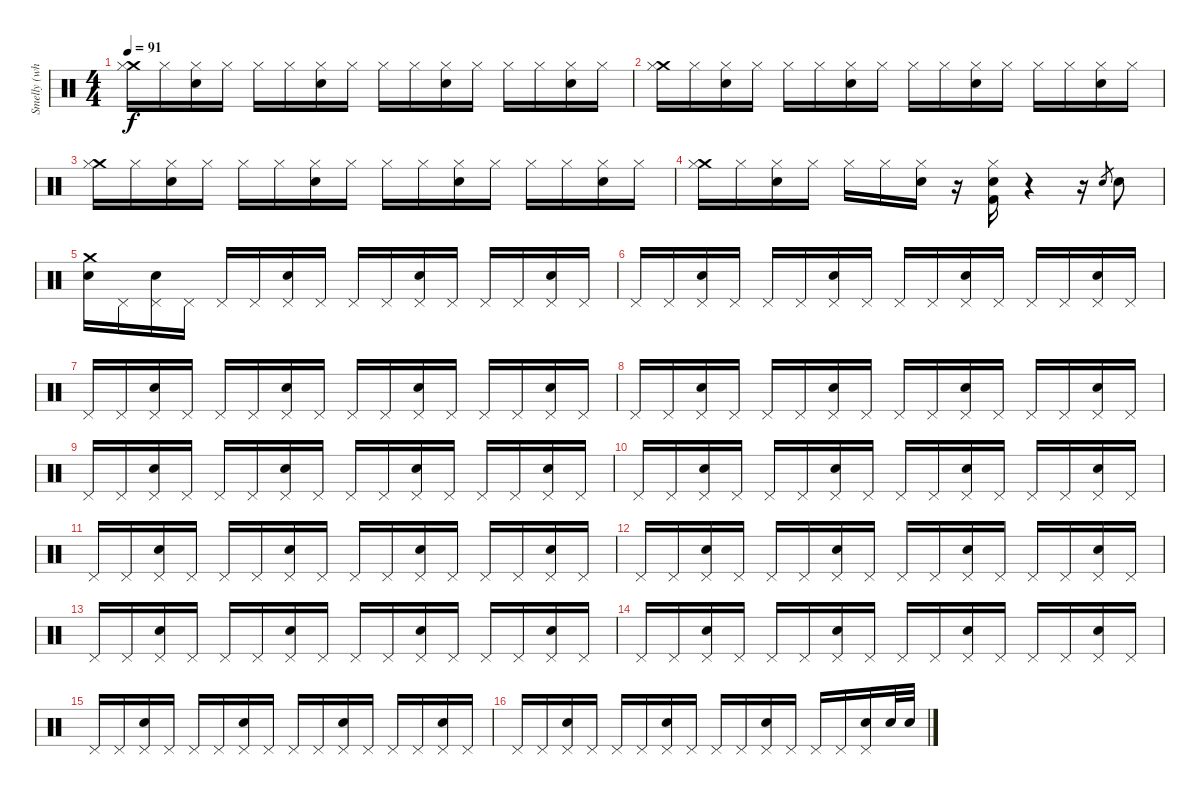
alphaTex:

\track ("Smelly (who ever change his name)" "Smelly (wh") {instrument percussion}
\staff {score}
\articulation defaults
\ts (4 4)
\tempo 91
\clef neutral
\ks c
("Crash medium (hit)" "Hi-Hat (closed)").16{dy f} "Hi-Hat (closed)".16 ("Hi-Hat (closed)" "Electric Snare (hit)").16 "Hi-Hat (closed)".16 "Hi-Hat (closed)".16 "Hi-Hat (closed)".16 ("Hi-Hat (closed)" "Electric Snare (hit)").16 "Hi-Hat (closed)".16 "Hi-Hat (closed)".16 "Hi-Hat (closed)".16 ("Hi-Hat (closed)" "Electric Snare (hit)").16 "Hi-Hat (closed)".16 "Hi-Hat (closed)".16 "Hi-Hat (closed)".16 ("Hi-Hat (closed)" "Electric Snare (hit)").16 "Hi-Hat (closed)".16 |
("Crash medium (hit)" "Hi-Hat (closed)").16 "Hi-Hat (closed)".16 ("Hi-Hat (closed)" "Electric Snare (hit)").16 "Hi-Hat (closed)".16 "Hi-Hat (closed)".16 "Hi-Hat (closed)".16 ("Hi-Hat (closed)" "Electric Snare (hit)").16 "Hi-Hat (closed)".16 "Hi-Hat (closed)".16 "Hi-Hat (closed)".16 ("Hi-Hat (closed)" "Electric Snare (hit)").16 "Hi-Hat (closed)".16 "Hi-Hat (closed)".16 "Hi-Hat (closed)".16 ("Hi-Hat (closed)" "Electric Snare (hit)").16 "Hi-Hat (closed)".16 |
("Crash medium (hit)" "Hi-Hat (closed)").16 "Hi-Hat (closed)".16 ("Hi-Hat (closed)" "Electric Snare (hit)").16 "Hi-Hat (closed)".16 "Hi-Hat (closed)".16 "Hi-Hat (closed)".16 ("Hi-Hat (closed)" "Electric Snare (hit)").16 "Hi-Hat (closed)".16 "Hi-Hat (closed)".16 "Hi-Hat (closed)".16 ("Hi-Hat (closed)" "Electric Snare (hit)").16 "Hi-Hat (closed)".16 "Hi-Hat (closed)".16 "Hi-Hat (closed)".16 ("Hi-Hat (closed)" "Electric Snare (hit)").16 "Hi-Hat (closed)".16 |
("Crash medium (hit)" "Hi-Hat (closed)").16 "Hi-Hat (closed)".16 ("Hi-Hat (closed)" "Electric Snare (hit)").16 "Hi-Hat (closed)".16 "Hi-Hat (closed)".16 "Hi-Hat (closed)".16 ("Hi-Hat (closed)" "Electric Snare (hit)").16 r.16 ("Hi-Hat (closed)" "Electric Snare (hit)" "Kick (hit) 2").16 r.4 r.16 "Electric Snare (hit)".8{gr} "Electric Snare (hit)".8 |
("Crash medium (hit)" "Electric Snare (hit)").16 "Pedal Hi-Hat (hit)".16 ("Pedal Hi-Hat (hit)" "Electric Snare (hit)").16 "Pedal Hi-Hat (hit)".16 "Pedal Hi-Hat (hit)".16 "Pedal Hi-Hat (hit)".16 ("Pedal Hi-Hat (hit)" "Electric Snare (hit)").16 "Pedal Hi-Hat (hit)".16 "Pedal Hi-Hat (hit)".16 "Pedal Hi-Hat (hit)".16 ("Pedal Hi-Hat (hit)" "Electric Snare (hit)").16 "Pedal Hi-Hat (hit)".16 "Pedal Hi-Hat (hit)".16 "Pedal Hi-Hat (hit)".16 ("Pedal Hi-Hat (hit)" "Electric Snare (hit)").16 "Pedal Hi-Hat (hit)".16 |
"Pedal Hi-Hat (hit)".16 "Pedal Hi-Hat (hit)".16 ("Pedal Hi-Hat (hit)" "Electric Snare (hit)").16 "Pedal Hi-Hat (hit)".16 "Pedal Hi-Hat (hit)".16 "Pedal Hi-Hat (hit)".16 ("Pedal Hi-Hat (hit)" "Electric Snare (hit)").16 "Pedal Hi-Hat (hit)".16 "Pedal Hi-Hat (hit)".16 "Pedal Hi-Hat (hit)".16 ("Pedal Hi-Hat (hit)" "Electric Snare (hit)").16 "Pedal Hi-Hat (hit)".16 "Pedal Hi-Hat (hit)".16 "Pedal Hi-Hat (hit)".16 ("Pedal Hi-Hat (hit)" "Electric Snare (hit)").16 "Pedal Hi-Hat (hit)".16 |
"Pedal Hi-Hat (hit)".16 "Pedal Hi-Hat (hit)".16 ("Pedal Hi-Hat (hit)" "Electric Snare (hit)").16 "Pedal Hi-Hat (hit)".16 "Pedal Hi-Hat (hit)".16 "Pedal Hi-Hat (hit)".16 ("Pedal Hi-Hat (hit)" "Electric Snare (hit)").16 "Pedal Hi-Hat (hit)".16 "Pedal Hi-Hat (hit)".16 "Pedal Hi-Hat (hit)".16 ("Pedal Hi-Hat (hit)" "Electric Snare (hit)").16 "Pedal Hi-Hat (hit)".16 "Pedal Hi-Hat (hit)".16 "Pedal Hi-Hat (hit)".16 ("Pedal Hi-Hat (hit)" "Electric Snare (hit)").16 "Pedal Hi-Hat (hit)".16 |
"Pedal Hi-Hat (hit)".16 "Pedal Hi-Hat (hit)".16 ("Pedal Hi-Hat (hit)" "Electric Snare (hit)").16 "Pedal Hi-Hat (hit)".16 "Pedal Hi-Hat (hit)".16 "Pedal Hi-Hat (hit)".16 ("Pedal Hi-Hat (hit)" "Electric Snare (hit)").16 "Pedal Hi-Hat (hit)".16 "Pedal Hi-Hat (hit)".16 "Pedal Hi-Hat (hit)".16 ("Pedal Hi-Hat (hit)" "Electric Snare (hit)").16 "Pedal Hi-Hat (hit)".16 "Pedal Hi-Hat (hit)".16 "Pedal Hi-Hat (hit)".16 ("Pedal Hi-Hat (hit)" "Electric Snare (hit)").16 "Pedal Hi-Hat (hit)".16 |
"Pedal Hi-Hat (hit)".16 "Pedal Hi-Hat (hit)".16 ("Pedal Hi-Hat (hit)" "Electric Snare (hit)").16 "Pedal Hi-Hat (hit)".16 "Pedal Hi-Hat (hit)".16 "Pedal Hi-Hat (hit)".16 ("Pedal Hi-Hat (hit)" "Electric Snare (hit)").16 "Pedal Hi-Hat (hit)".16 "Pedal Hi-Hat (hit)".16 "Pedal Hi-Hat (hit)".16 ("Pedal Hi-Hat (hit)" "Electric Snare (hit)").16 "Pedal Hi-Hat (hit)".16 "Pedal Hi-Hat (hit)".16 "Pedal Hi-Hat (hit)".16 ("Pedal Hi-Hat (hit)" "Electric Snare (hit)").16 "Pedal Hi-Hat (hit)".16 |
"Pedal Hi-Hat (hit)".16 "Pedal Hi-Hat (hit)".16 ("Pedal Hi-Hat (hit)" "Electric Snare (hit)").16 "Pedal Hi-Hat (hit)".16 "Pedal Hi-Hat (hit)".16 "Pedal Hi-Hat (hit)".16 ("Pedal Hi-Hat (hit)" "Electric Snare (hit)").16 "Pedal Hi-Hat (hit)".16 "Pedal Hi-Hat (hit)".16 "Pedal Hi-Hat (hit)".16 ("Pedal Hi-Hat (hit)" "Electric Snare (hit)").16 "Pedal Hi-Hat (hit)".16 "Pedal Hi-Hat (hit)".16 "Pedal Hi-Hat (hit)".16 ("Pedal Hi-Hat (hit)" "Electric Snare (hit)").16 "Pedal Hi-Hat (hit)".16 |
"Pedal Hi-Hat (hit)".16 "Pedal Hi-Hat (hit)".16 ("Pedal Hi-Hat (hit)" "Electric Snare (hit)").16 "Pedal Hi-Hat (hit)".16 "Pedal Hi-Hat (hit)".16 "Pedal Hi-Hat (hit)".16 ("Pedal Hi-Hat (hit)" "Electric Snare (hit)").16 "Pedal Hi-Hat (hit)".16 "Pedal Hi-Hat (hit)".16 "Pedal Hi-Hat (hit)".16 ("Pedal Hi-Hat (hit)" "Electric Snare (hit)").16 "Pedal Hi-Hat (hit)".16 "Pedal Hi-Hat (hit)".16 "Pedal Hi-Hat (hit)".16 ("Pedal Hi-Hat (hit)" "Electric Snare (hit)").16 "Pedal Hi-Hat (hit)".16 |
"Pedal Hi-Hat (hit)".16 "Pedal Hi-Hat (hit)".16 ("Pedal Hi-Hat (hit)" "Electric Snare (hit)").16 "Pedal Hi-Hat (hit)".16 "Pedal Hi-Hat (hit)".16 "Pedal Hi-Hat (hit)".16 ("Pedal Hi-Hat (hit)" "Electric Snare (hit)").16 "Pedal Hi-Hat (hit)".16 "Pedal Hi-Hat (hit)".16 "Pedal Hi-Hat (hit)".16 ("Pedal Hi-Hat (hit)" "Electric Snare (hit)").16 "Pedal Hi-Hat (hit)".16 "Pedal Hi-Hat (hit)".16 "Pedal Hi-Hat (hit)".16 ("Pedal Hi-Hat (hit)" "Electric Snare (hit)").16 "Pedal Hi-Hat (hit)".16 |
"Pedal Hi-Hat (hit)".16 "Pedal Hi-Hat (hit)".16 ("Pedal Hi-Hat (hit)" "Electric Snare (hit)").16 "Pedal Hi-Hat (hit)".16 "Pedal Hi-Hat (hit)".16 "Pedal Hi-Hat (hit)".16 ("Pedal Hi-Hat (hit)" "Electric Snare (hit)").16 "Pedal Hi-Hat (hit)".16 "Pedal Hi-Hat (hit)".16 "Pedal Hi-Hat (hit)".16 ("Pedal Hi-Hat (hit)" "Electric Snare (hit)").16 "Pedal Hi-Hat (hit)".16 "Pedal Hi-Hat (hit)".16 "Pedal Hi-Hat (hit)".16 ("Pedal Hi-Hat (hit)" "Electric Snare (hit)").16 "Pedal Hi-Hat (hit)".16 |
"Pedal Hi-Hat (hit)".16 "Pedal Hi-Hat (hit)".16 ("Pedal Hi-Hat (hit)" "Electric Snare (hit)").16 "Pedal Hi-Hat (hit)".16 "Pedal Hi-Hat (hit)".16 "Pedal Hi-Hat (hit)".16 ("Pedal Hi-Hat (hit)" "Electric Snare (hit)").16 "Pedal Hi-Hat (hit)".16 "Pedal Hi-Hat (hit)".16 "Pedal Hi-Hat (hit)".16 ("Pedal Hi-Hat (hit)" "Electric Snare (hit)").16 "Pedal Hi-Hat (hit)".16 "Pedal Hi-Hat (hit)".16 "Pedal Hi-Hat (hit)".16 ("Pedal Hi-Hat (hit)" "Electric Snare (hit)").16 "Pedal Hi-Hat (hit)".16 |
"Pedal Hi-Hat (hit)".16 "Pedal Hi-Hat (hit)".16 ("Pedal Hi-Hat (hit)" "Electric Snare (hit)").16 "Pedal Hi-Hat (hit)".16 "Pedal Hi-Hat (hit)".16 "Pedal Hi-Hat (hit)".16 ("Pedal Hi-Hat (hit)" "Electric Snare (hit)").16 "Pedal Hi-Hat (hit)".16 "Pedal Hi-Hat (hit)".16 "Pedal Hi-Hat (hit)".16 ("Pedal Hi-Hat (hit)" "Electric Snare (hit)").16 "Pedal Hi-Hat (hit)".16 "Pedal Hi-Hat (hit)".16 "Pedal Hi-Hat (hit)".16 ("Pedal Hi-Hat (hit)" "Electric Snare (hit)").16 "Pedal Hi-Hat (hit)".16 |
"Pedal Hi-Hat (hit)".16 "Pedal Hi-Hat (hit)".16 ("Pedal Hi-Hat (hit)" "Electric Snare (hit)").16 "Pedal Hi-Hat (hit)".16 "Pedal Hi-Hat (hit)".16 "Pedal Hi-Hat (hit)".16 ("Pedal Hi-Hat (hit)" "Electric Snare (hit)").16 "Pedal Hi-Hat (hit)".16 "Pedal Hi-Hat (hit)".16 "Pedal Hi-Hat (hit)".16 ("Pedal Hi-Hat (hit)" "Electric Snare (hit)").16 "Pedal Hi-Hat (hit)".16 "Pedal Hi-Hat (hit)".16 "Pedal Hi-Hat (hit)".16 ("Pedal Hi-Hat (hit)" "Electric Snare (hit)").16 "Electric Snare (hit)".32 "Electric Snare (hit)".32
